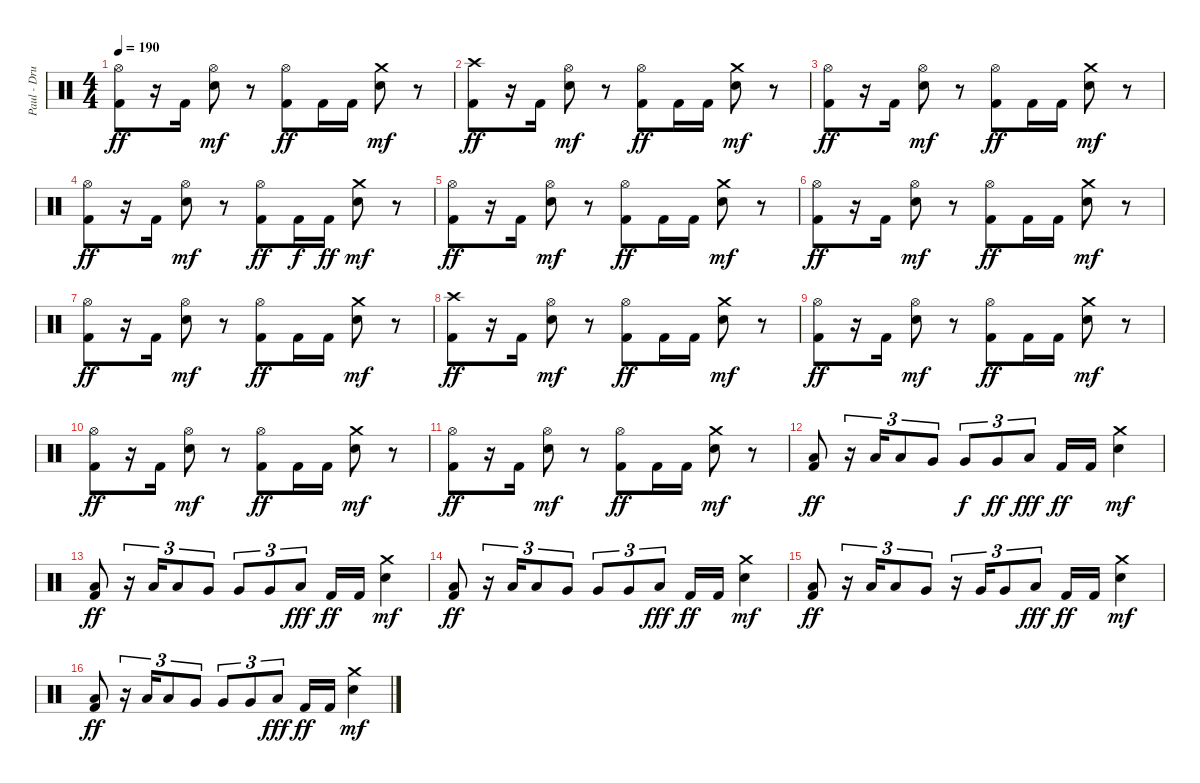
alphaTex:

\track ("Paul - Drums" "Paul - Dru") {instrument percussion}
\staff {score}
\articulation defaults
\ts (4 4)
\tempo 190
\clef neutral
\ks c
("Hi-Hat (open)" "Kick (hit) 2").8{dy ff} r.16 "Kick (hit) 2".16 ("Hi-Hat (open)" "Electric Snare (hit)").8{dy mf} r.8 ("Hi-Hat (open)" "Kick (hit) 2").8{dy ff} "Kick (hit) 2".16 "Kick (hit) 2".16 ("Crash medium (hit)" "Electric Snare (hit)").8{dy mf} r.8 |
("Crash high (hit)" "Kick (hit) 2").8{dy ff} r.16 "Kick (hit) 2".16 ("Hi-Hat (open)" "Electric Snare (hit)").8{dy mf} r.8 ("Hi-Hat (open)" "Kick (hit) 2").8{dy ff} "Kick (hit) 2".16 "Kick (hit) 2".16 ("Crash medium (hit)" "Electric Snare (hit)").8{dy mf} r.8 |
("Hi-Hat (open)" "Kick (hit) 2").8{dy ff} r.16 "Kick (hit) 2".16 ("Hi-Hat (open)" "Electric Snare (hit)").8{dy mf} r.8 ("Hi-Hat (open)" "Kick (hit) 2").8{dy ff} "Kick (hit) 2".16 "Kick (hit) 2".16 ("Crash medium (hit)" "Electric Snare (hit)").8{dy mf} r.8 |
("Hi-Hat (open)" "Kick (hit) 2").8{dy ff} r.16 "Kick (hit) 2".16 ("Hi-Hat (open)" "Electric Snare (hit)").8{dy mf} r.8 ("Hi-Hat (open)" "Kick (hit) 2").8{dy ff} "Kick (hit) 2".16{dy f} "Kick (hit) 2".16{dy ff} ("Crash medium (hit)" "Electric Snare (hit)").8{dy mf} r.8 |
("Hi-Hat (open)" "Kick (hit) 2").8{dy ff} r.16 "Kick (hit) 2".16 ("Hi-Hat (open)" "Electric Snare (hit)").8{dy mf} r.8 ("Hi-Hat (open)" "Kick (hit) 2").8{dy ff} "Kick (hit) 2".16 "Kick (hit) 2".16 ("Crash medium (hit)" "Electric Snare (hit)").8{dy mf} r.8 |
("Hi-Hat (open)" "Kick (hit) 2").8{dy ff} r.16 "Kick (hit) 2".16 ("Hi-Hat (open)" "Electric Snare (hit)").8{dy mf} r.8 ("Hi-Hat (open)" "Kick (hit) 2").8{dy ff} "Kick (hit) 2".16 "Kick (hit) 2".16 ("Crash medium (hit)" "Electric Snare (hit)").8{dy mf} r.8 |
("Hi-Hat (open)" "Kick (hit) 2").8{dy ff} r.16 "Kick (hit) 2".16 ("Hi-Hat (open)" "Electric Snare (hit)").8{dy mf} r.8 ("Hi-Hat (open)" "Kick (hit) 2").8{dy ff} "Kick (hit) 2".16 "Kick (hit) 2".16 ("Crash medium (hit)" "Electric Snare (hit)").8{dy mf} r.8 |
("Crash high (hit)" "Kick (hit) 2").8{dy ff} r.16 "Kick (hit) 2".16 ("Hi-Hat (open)" "Electric Snare (hit)").8{dy mf} r.8 ("Hi-Hat (open)" "Kick (hit) 2").8{dy ff} "Kick (hit) 2".16 "Kick (hit) 2".16 ("Crash medium (hit)" "Electric Snare (hit)").8{dy mf} r.8 |
("Hi-Hat (open)" "Kick (hit) 2").8{dy ff} r.16 "Kick (hit) 2".16 ("Hi-Hat (open)" "Electric Snare (hit)").8{dy mf} r.8 ("Hi-Hat (open)" "Kick (hit) 2").8{dy ff} "Kick (hit) 2".16 "Kick (hit) 2".16 ("Crash medium (hit)" "Electric Snare (hit)").8{dy mf} r.8 |
("Hi-Hat (open)" "Kick (hit) 2").8{dy ff} r.16 "Kick (hit) 2".16 ("Hi-Hat (open)" "Electric Snare (hit)").8{dy mf} r.8 ("Hi-Hat (open)" "Kick (hit) 2").8{dy ff} "Kick (hit) 2".16 "Kick (hit) 2".16 ("Crash medium (hit)" "Electric Snare (hit)").8{dy mf} r.8 |
("Hi-Hat (open)" "Kick (hit) 2").8{dy ff} r.16 "Kick (hit) 2".16 ("Hi-Hat (open)" "Electric Snare (hit)").8{dy mf} r.8 ("Hi-Hat (open)" "Kick (hit) 2").8{dy ff} "Kick (hit) 2".16 "Kick (hit) 2".16 ("Crash medium (hit)" "Electric Snare (hit)").8{dy mf} r.8 |
("Low Tom (hit)" "Kick (hit) 2").8{dy ff} r.16{tu (3 2)} "Low Tom (hit)".16{tu (3 2)} "Low Tom (hit)".8{tu (3 2)} "Very Low Tom (hit)".8{tu (3 2)} "Very Low Tom (hit)".8{tu (3 2) dy f} "Very Low Tom (hit)".8{tu (3 2) dy ff} "Low Floor Tom (hit)".8{tu (3 2) dy fff} "Kick (hit) 2".16{dy ff} "Kick (hit) 2".16 ("Crash medium (hit)" "Electric Snare (hit)").4{dy mf} |
("Low Tom (hit)" "Kick (hit) 2").8{dy ff} r.16{tu (3 2)} "Low Tom (hit)".16{tu (3 2)} "Low Tom (hit)".8{tu (3 2)} "Very Low Tom (hit)".8{tu (3 2)} "Very Low Tom (hit)".8{tu (3 2)} "Very Low Tom (hit)".8{tu (3 2)} "Low Floor Tom (hit)".8{tu (3 2) dy fff} "Kick (hit) 2".16{dy ff} "Kick (hit) 2".16 ("Crash medium (hit)" "Electric Snare (hit)").4{dy mf} |
("Low Tom (hit)" "Kick (hit) 2").8{dy ff} r.16{tu (3 2)} "Low Tom (hit)".16{tu (3 2)} "Low Tom (hit)".8{tu (3 2)} "Very Low Tom (hit)".8{tu (3 2)} "Very Low Tom (hit)".8{tu (3 2)} "Very Low Tom (hit)".8{tu (3 2)} "Low Floor Tom (hit)".8{tu (3 2) dy fff} "Kick (hit) 2".16{dy ff} "Kick (hit) 2".16 ("Crash medium (hit)" "Electric Snare (hit)").4{dy mf} |
("Low Tom (hit)" "Kick (hit) 2").8{dy ff} r.16{tu (3 2)} "Low Tom (hit)".16{tu (3 2)} "Low Tom (hit)".8{tu (3 2)} "Very Low Tom (hit)".8{tu (3 2)} r.16{tu (3 2)} "Very Low Tom (hit)".16{tu (3 2)} "Very Low Tom (hit)".8{tu (3 2)} "Low Floor Tom (hit)".8{tu (3 2) dy fff} "Kick (hit) 2".16{dy ff} "Kick (hit) 2".16 ("Crash medium (hit)" "Electric Snare (hit)").4{dy mf} |
("Low Tom (hit)" "Kick (hit) 2").8{dy ff} r.16{tu (3 2)} "Low Tom (hit)".16{tu (3 2)} "Low Tom (hit)".8{tu (3 2)} "Very Low Tom (hit)".8{tu (3 2)} "Very Low Tom (hit)".8{tu (3 2)} "Very Low Tom (hit)".8{tu (3 2)} "Low Floor Tom (hit)".8{tu (3 2) dy fff} "Kick (hit) 2".16{dy ff} "Kick (hit) 2".16 ("Crash medium (hit)" "Electric Snare (hit)").4{dy mf}
